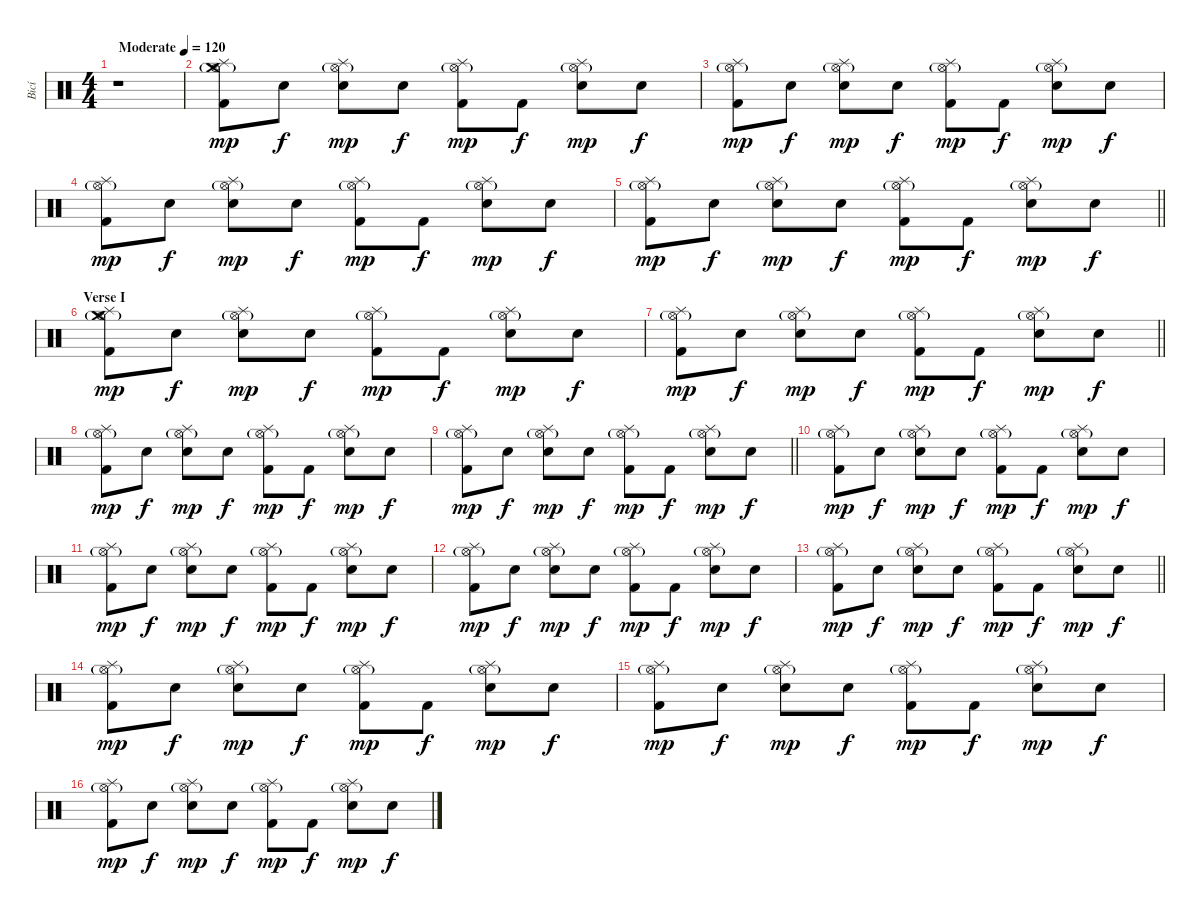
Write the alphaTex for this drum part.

\track ("Bicí" "Bicí") {instrument percussion}
\staff {score}
\articulation defaults
\ts (4 4)
\tempo (120 "Moderate")
\clef neutral
\ks c
r.1{dy mp} |
("Crash medium (hit)" "Splash (hit)" "Hi-Hat (open)"{g} "Kick (hit) 2").8 "Snare (hit)".8{dy f} ("Splash (hit)" "Hi-Hat (open)"{g} "Electric Snare (hit)").8{dy mp} "Snare (hit)".8{dy f} ("Splash (hit)" "Hi-Hat (open)"{g} "Kick (hit) 2").8{dy mp} "Kick (hit) 2".8{dy f} ("Splash (hit)" "Hi-Hat (open)"{g} "Electric Snare (hit)").8{dy mp} "Snare (hit)".8{dy f} |
("Splash (hit)" "Hi-Hat (open)"{g} "Kick (hit) 2").8{dy mp} "Snare (hit)".8{dy f} ("Splash (hit)" "Hi-Hat (open)"{g} "Electric Snare (hit)").8{dy mp} "Snare (hit)".8{dy f} ("Splash (hit)" "Hi-Hat (open)"{g} "Kick (hit) 2").8{dy mp} "Kick (hit) 2".8{dy f} ("Splash (hit)" "Hi-Hat (open)"{g} "Electric Snare (hit)").8{dy mp} "Snare (hit)".8{dy f} |
("Splash (hit)" "Hi-Hat (open)"{g} "Kick (hit) 2").8{dy mp} "Snare (hit)".8{dy f} ("Splash (hit)" "Hi-Hat (open)"{g} "Electric Snare (hit)").8{dy mp} "Snare (hit)".8{dy f} ("Splash (hit)" "Hi-Hat (open)"{g} "Kick (hit) 2").8{dy mp} "Kick (hit) 2".8{dy f} ("Splash (hit)" "Hi-Hat (open)"{g} "Electric Snare (hit)").8{dy mp} "Snare (hit)".8{dy f} |
\barLineRight lightlight
("Splash (hit)" "Hi-Hat (open)"{g} "Kick (hit) 2").8{dy mp} "Snare (hit)".8{dy f} ("Splash (hit)" "Hi-Hat (open)"{g} "Electric Snare (hit)").8{dy mp} "Snare (hit)".8{dy f} ("Splash (hit)" "Hi-Hat (open)"{g} "Kick (hit) 2").8{dy mp} "Kick (hit) 2".8{dy f} ("Splash (hit)" "Hi-Hat (open)"{g} "Electric Snare (hit)").8{dy mp} "Snare (hit)".8{dy f} |
\section ("" "Verse I")
("Crash medium (hit)" "Splash (hit)" "Hi-Hat (open)"{g} "Kick (hit) 2").8{dy mp} "Snare (hit)".8{dy f} ("Splash (hit)" "Hi-Hat (open)"{g} "Electric Snare (hit)").8{dy mp} "Snare (hit)".8{dy f} ("Splash (hit)" "Hi-Hat (open)"{g} "Kick (hit) 2").8{dy mp} "Kick (hit) 2".8{dy f} ("Splash (hit)" "Hi-Hat (open)"{g} "Electric Snare (hit)").8{dy mp} "Snare (hit)".8{dy f} |
\barLineRight lightlight
("Splash (hit)" "Hi-Hat (open)"{g} "Kick (hit) 2").8{dy mp} "Snare (hit)".8{dy f} ("Splash (hit)" "Hi-Hat (open)"{g} "Electric Snare (hit)").8{dy mp} "Snare (hit)".8{dy f} ("Splash (hit)" "Hi-Hat (open)"{g} "Kick (hit) 2").8{dy mp} "Kick (hit) 2".8{dy f} ("Splash (hit)" "Hi-Hat (open)"{g} "Electric Snare (hit)").8{dy mp} "Snare (hit)".8{dy f} |
("Splash (hit)" "Hi-Hat (open)"{g} "Kick (hit) 2").8{dy mp} "Snare (hit)".8{dy f} ("Splash (hit)" "Hi-Hat (open)"{g} "Electric Snare (hit)").8{dy mp} "Snare (hit)".8{dy f} ("Splash (hit)" "Hi-Hat (open)"{g} "Kick (hit) 2").8{dy mp} "Kick (hit) 2".8{dy f} ("Splash (hit)" "Hi-Hat (open)"{g} "Electric Snare (hit)").8{dy mp} "Snare (hit)".8{dy f} |
\barLineRight lightlight
("Splash (hit)" "Hi-Hat (open)"{g} "Kick (hit) 2").8{dy mp} "Snare (hit)".8{dy f} ("Splash (hit)" "Hi-Hat (open)"{g} "Electric Snare (hit)").8{dy mp} "Snare (hit)".8{dy f} ("Splash (hit)" "Hi-Hat (open)"{g} "Kick (hit) 2").8{dy mp} "Kick (hit) 2".8{dy f} ("Splash (hit)" "Hi-Hat (open)"{g} "Electric Snare (hit)").8{dy mp} "Snare (hit)".8{dy f} |
("Splash (hit)" "Hi-Hat (open)"{g} "Kick (hit) 2").8{dy mp} "Snare (hit)".8{dy f} ("Splash (hit)" "Hi-Hat (open)"{g} "Electric Snare (hit)").8{dy mp} "Snare (hit)".8{dy f} ("Splash (hit)" "Hi-Hat (open)"{g} "Kick (hit) 2").8{dy mp} "Kick (hit) 2".8{dy f} ("Splash (hit)" "Hi-Hat (open)"{g} "Electric Snare (hit)").8{dy mp} "Snare (hit)".8{dy f} |
("Splash (hit)" "Hi-Hat (open)"{g} "Kick (hit) 2").8{dy mp} "Snare (hit)".8{dy f} ("Splash (hit)" "Hi-Hat (open)"{g} "Electric Snare (hit)").8{dy mp} "Snare (hit)".8{dy f} ("Splash (hit)" "Hi-Hat (open)"{g} "Kick (hit) 2").8{dy mp} "Kick (hit) 2".8{dy f} ("Splash (hit)" "Hi-Hat (open)"{g} "Electric Snare (hit)").8{dy mp} "Snare (hit)".8{dy f} |
("Splash (hit)" "Hi-Hat (open)"{g} "Kick (hit) 2").8{dy mp} "Snare (hit)".8{dy f} ("Splash (hit)" "Hi-Hat (open)"{g} "Electric Snare (hit)").8{dy mp} "Snare (hit)".8{dy f} ("Splash (hit)" "Hi-Hat (open)"{g} "Kick (hit) 2").8{dy mp} "Kick (hit) 2".8{dy f} ("Splash (hit)" "Hi-Hat (open)"{g} "Electric Snare (hit)").8{dy mp} "Snare (hit)".8{dy f} |
\barLineRight lightlight
("Splash (hit)" "Hi-Hat (open)"{g} "Kick (hit) 2").8{dy mp} "Snare (hit)".8{dy f} ("Splash (hit)" "Hi-Hat (open)"{g} "Electric Snare (hit)").8{dy mp} "Snare (hit)".8{dy f} ("Splash (hit)" "Hi-Hat (open)"{g} "Kick (hit) 2").8{dy mp} "Kick (hit) 2".8{dy f} ("Splash (hit)" "Hi-Hat (open)"{g} "Electric Snare (hit)").8{dy mp} "Snare (hit)".8{dy f} |
("Splash (hit)" "Hi-Hat (open)"{g} "Kick (hit) 2").8{dy mp} "Snare (hit)".8{dy f} ("Splash (hit)" "Hi-Hat (open)"{g} "Electric Snare (hit)").8{dy mp} "Snare (hit)".8{dy f} ("Splash (hit)" "Hi-Hat (open)"{g} "Kick (hit) 2").8{dy mp} "Kick (hit) 2".8{dy f} ("Splash (hit)" "Hi-Hat (open)"{g} "Electric Snare (hit)").8{dy mp} "Snare (hit)".8{dy f} |
("Splash (hit)" "Hi-Hat (open)"{g} "Kick (hit) 2").8{dy mp} "Snare (hit)".8{dy f} ("Splash (hit)" "Hi-Hat (open)"{g} "Electric Snare (hit)").8{dy mp} "Snare (hit)".8{dy f} ("Splash (hit)" "Hi-Hat (open)"{g} "Kick (hit) 2").8{dy mp} "Kick (hit) 2".8{dy f} ("Splash (hit)" "Hi-Hat (open)"{g} "Electric Snare (hit)").8{dy mp} "Snare (hit)".8{dy f} |
("Splash (hit)" "Hi-Hat (open)"{g} "Kick (hit) 2").8{dy mp} "Snare (hit)".8{dy f} ("Splash (hit)" "Hi-Hat (open)"{g} "Electric Snare (hit)").8{dy mp} "Snare (hit)".8{dy f} ("Splash (hit)" "Hi-Hat (open)"{g} "Kick (hit) 2").8{dy mp} "Kick (hit) 2".8{dy f} ("Splash (hit)" "Hi-Hat (open)"{g} "Electric Snare (hit)").8{dy mp} "Snare (hit)".8{dy f}
